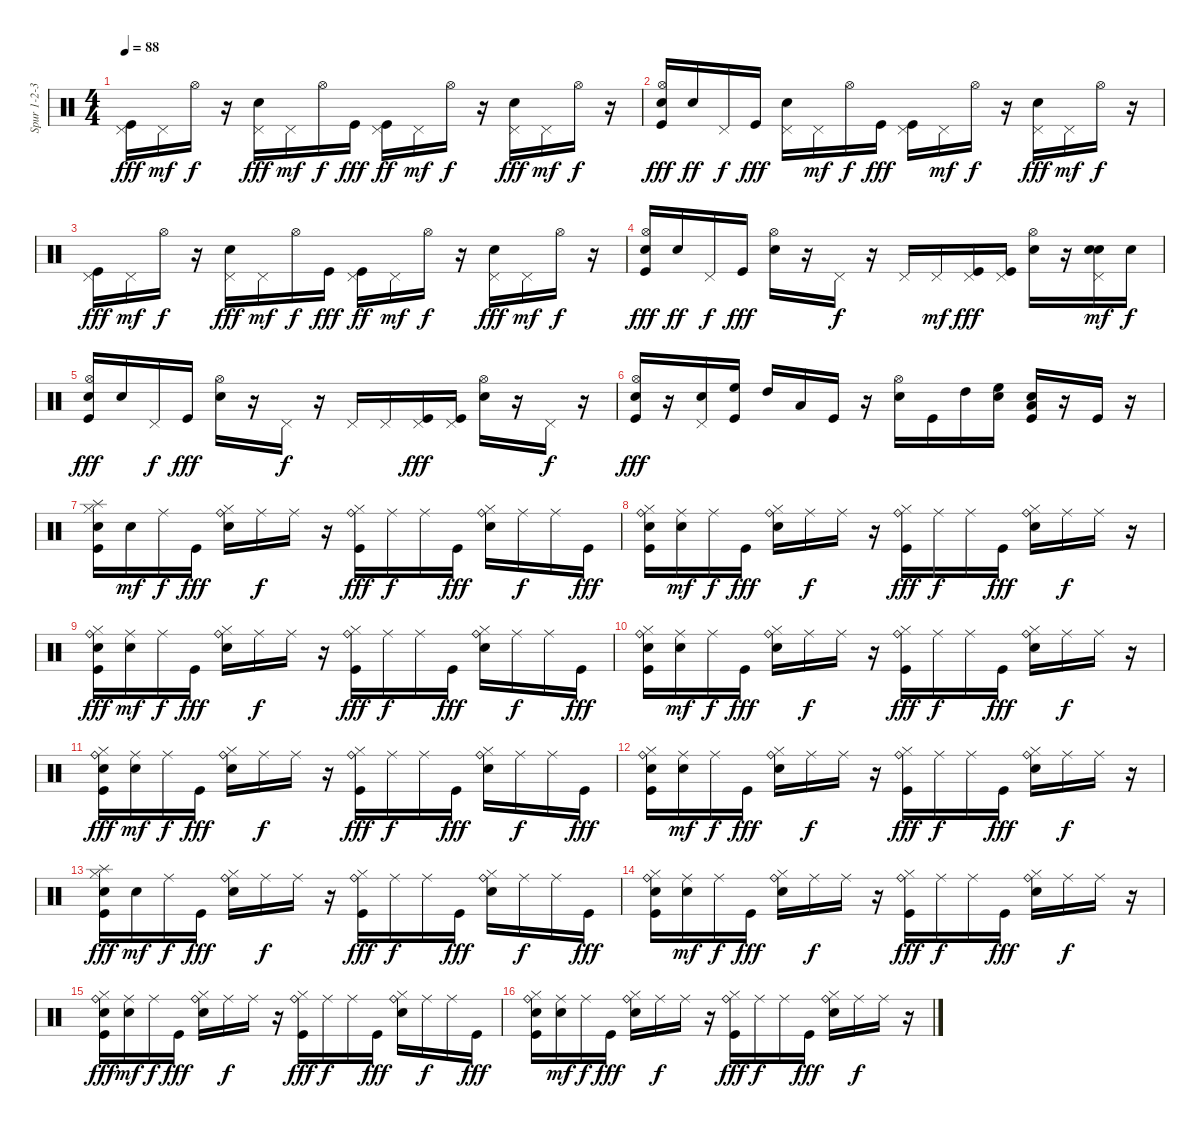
\track ("Spur 1-2-3-4" "Spur 1-2-3") {instrument percussion}
\staff {score}
\articulation defaults
\ts (4 4)
\tempo 88
\clef neutral
\ks c
("Pedal Hi-Hat (hit)" "Kick (hit)").16{dy fff} "Pedal Hi-Hat (hit)".16{dy mf} "Hi-Hat (open)".16{dy f} r.16 ("Pedal Hi-Hat (hit)" "Snare (hit) 2").16{dy fff} "Pedal Hi-Hat (hit)".16{dy mf} "Hi-Hat (open)".16{dy f} "Kick (hit)".16{dy fff} ("Pedal Hi-Hat (hit)" "Kick (hit)").16{dy ff} "Pedal Hi-Hat (hit)".16{dy mf} "Hi-Hat (open)".16{dy f} r.16 ("Pedal Hi-Hat (hit)" "Snare (hit) 2").16{dy fff} "Pedal Hi-Hat (hit)".16{dy mf} "Hi-Hat (open)".16{dy f} r.16 |
("Hi-Hat (open)" "Snare (hit) 2" "Kick (hit)").16{dy fff} "Snare (hit) 2".16{dy ff} "Pedal Hi-Hat (hit)".16{dy f} "Kick (hit)".16{dy fff} ("Pedal Hi-Hat (hit)" "Snare (hit) 2").16 "Pedal Hi-Hat (hit)".16{dy mf} "Hi-Hat (open)".16{dy f} "Kick (hit)".16{dy fff} ("Pedal Hi-Hat (hit)" "Kick (hit)").16 "Pedal Hi-Hat (hit)".16{dy mf} "Hi-Hat (open)".16{dy f} r.16 ("Pedal Hi-Hat (hit)" "Snare (hit) 2").16{dy fff} "Pedal Hi-Hat (hit)".16{dy mf} "Hi-Hat (open)".16{dy f} r.16 |
("Pedal Hi-Hat (hit)" "Kick (hit)").16{dy fff} "Pedal Hi-Hat (hit)".16{dy mf} "Hi-Hat (open)".16{dy f} r.16 ("Pedal Hi-Hat (hit)" "Snare (hit) 2").16{dy fff} "Pedal Hi-Hat (hit)".16{dy mf} "Hi-Hat (open)".16{dy f} "Kick (hit)".16{dy fff} ("Pedal Hi-Hat (hit)" "Kick (hit)").16{dy ff} "Pedal Hi-Hat (hit)".16{dy mf} "Hi-Hat (open)".16{dy f} r.16 ("Pedal Hi-Hat (hit)" "Snare (hit) 2").16{dy fff} "Pedal Hi-Hat (hit)".16{dy mf} "Hi-Hat (open)".16{dy f} r.16 |
("Hi-Hat (open)" "Snare (hit) 2" "Kick (hit)").16{dy fff} "Snare (hit) 2".16{dy ff} "Pedal Hi-Hat (hit)".16{dy f} "Kick (hit)".16{dy fff} ("Hi-Hat (open)" "Snare (hit) 2").16 r.16 "Pedal Hi-Hat (hit)".16{dy f} r.16 "Pedal Hi-Hat (hit)".16 "Pedal Hi-Hat (hit)".16{dy mf} ("Pedal Hi-Hat (hit)" "Kick (hit)").16{dy fff} ("Pedal Hi-Hat (hit)" "Kick (hit)").16 ("Hi-Hat (open)" "Snare (hit) 2").16 r.16 ("Pedal Hi-Hat (hit)" "Snare (hit) 2" "Snare (hit) 2").16{dy mf} "Snare (hit) 2".16{dy f} |
("Hi-Hat (open)" "Snare (hit) 2" "Kick (hit)").16{dy fff} "Snare (hit) 2".16 "Pedal Hi-Hat (hit)".16{dy f} "Kick (hit)".16{dy fff} ("Hi-Hat (open)" "Snare (hit) 2").16 r.16 "Pedal Hi-Hat (hit)".16{dy f} r.16 "Pedal Hi-Hat (hit)".16 "Pedal Hi-Hat (hit)".16 ("Pedal Hi-Hat (hit)" "Kick (hit)").16{dy fff} ("Pedal Hi-Hat (hit)" "Kick (hit)").16 ("Hi-Hat (open)" "Snare (hit) 2").16 r.16 "Pedal Hi-Hat (hit)".16{dy f} r.16 |
("Hi-Hat (open)" "Snare (hit) 2" "Kick (hit)").16{dy fff} r.16 ("Pedal Hi-Hat (hit)" "Snare (hit) 2").16 ("Kick (hit)" "High Floor Tom (hit)").16 "High Tom (hit)".16 "Low Tom (hit)".16 "Kick (hit)".16 r.16 ("Hi-Hat (open)" "Snare (hit) 2").16 "Kick (hit)".16 "High Tom (hit)".16 ("High Floor Tom (hit)" "Snare (hit) 2").16 ("Snare (hit) 2" "Kick (hit)" "Low Tom (hit)").16 r.16 "Kick (hit)".16 r.16 |
("Hi-Hat (closed)" "Snare (hit) 2" "Kick (hit)" "Splash (hit)").16 "Snare (hit) 2".16{dy mf} "Ride (middle)".16{dy f} "Kick (hit)".16{dy fff} ("Hi-Hat (closed)" "Snare (hit) 2" "Ride (bell)").16 "Ride (middle)".16{dy f} "Ride (middle)".16 r.16 ("Hi-Hat (closed)" "Kick (hit)" "Ride (bell)").16{dy fff} "Ride (middle)".16{dy f} "Ride (middle)".16 "Kick (hit)".16{dy fff} ("Hi-Hat (closed)" "Snare (hit) 2" "Ride (bell)").16 "Ride (middle)".16{dy f} "Ride (middle)".16 "Kick (hit)".16{dy fff} |
("Hi-Hat (closed)" "Snare (hit) 2" "Kick (hit)" "Ride (bell)").16 ("Snare (hit) 2" "Ride (middle)").16{dy mf} "Ride (middle)".16{dy f} "Kick (hit)".16{dy fff} ("Hi-Hat (closed)" "Snare (hit) 2" "Ride (bell)").16 "Ride (middle)".16{dy f} "Ride (middle)".16 r.16 ("Hi-Hat (closed)" "Kick (hit)" "Ride (bell)").16{dy fff} "Ride (middle)".16{dy f} "Ride (middle)".16 "Kick (hit)".16{dy fff} ("Hi-Hat (closed)" "Snare (hit) 2" "Ride (bell)").16 "Ride (middle)".16{dy f} "Ride (middle)".16 r.16 |
("Hi-Hat (closed)" "Snare (hit) 2" "Kick (hit)" "Ride (bell)").16{dy fff} ("Snare (hit) 2" "Ride (middle)").16{dy mf} "Ride (middle)".16{dy f} "Kick (hit)".16{dy fff} ("Hi-Hat (closed)" "Snare (hit) 2" "Ride (bell)").16 "Ride (middle)".16{dy f} "Ride (middle)".16 r.16 ("Hi-Hat (closed)" "Kick (hit)" "Ride (bell)").16{dy fff} "Ride (middle)".16{dy f} "Ride (middle)".16 "Kick (hit)".16{dy fff} ("Hi-Hat (closed)" "Snare (hit) 2" "Ride (bell)").16 "Ride (middle)".16{dy f} "Ride (middle)".16 "Kick (hit)".16{dy fff} |
("Hi-Hat (closed)" "Snare (hit) 2" "Kick (hit)" "Ride (bell)").16 ("Snare (hit) 2" "Ride (middle)").16{dy mf} "Ride (middle)".16{dy f} "Kick (hit)".16{dy fff} ("Hi-Hat (closed)" "Snare (hit) 2" "Ride (bell)").16 "Ride (middle)".16{dy f} "Ride (middle)".16 r.16 ("Hi-Hat (closed)" "Kick (hit)" "Ride (bell)").16{dy fff} "Ride (middle)".16{dy f} "Ride (middle)".16 "Kick (hit)".16{dy fff} ("Hi-Hat (closed)" "Snare (hit) 2" "Ride (bell)").16 "Ride (middle)".16{dy f} "Ride (middle)".16 r.16 |
("Hi-Hat (closed)" "Snare (hit) 2" "Kick (hit)" "Ride (bell)").16{dy fff} ("Snare (hit) 2" "Ride (middle)").16{dy mf} "Ride (middle)".16{dy f} "Kick (hit)".16{dy fff} ("Hi-Hat (closed)" "Snare (hit) 2" "Ride (bell)").16 "Ride (middle)".16{dy f} "Ride (middle)".16 r.16 ("Hi-Hat (closed)" "Kick (hit)" "Ride (bell)").16{dy fff} "Ride (middle)".16{dy f} "Ride (middle)".16 "Kick (hit)".16{dy fff} ("Hi-Hat (closed)" "Snare (hit) 2" "Ride (bell)").16 "Ride (middle)".16{dy f} "Ride (middle)".16 "Kick (hit)".16{dy fff} |
("Hi-Hat (closed)" "Snare (hit) 2" "Kick (hit)" "Ride (bell)").16 ("Snare (hit) 2" "Ride (middle)").16{dy mf} "Ride (middle)".16{dy f} "Kick (hit)".16{dy fff} ("Hi-Hat (closed)" "Snare (hit) 2" "Ride (bell)").16 "Ride (middle)".16{dy f} "Ride (middle)".16 r.16 ("Hi-Hat (closed)" "Kick (hit)" "Ride (bell)").16{dy fff} "Ride (middle)".16{dy f} "Ride (middle)".16 "Kick (hit)".16{dy fff} ("Hi-Hat (closed)" "Snare (hit) 2" "Ride (bell)").16 "Ride (middle)".16{dy f} "Ride (middle)".16 r.16 |
("Hi-Hat (closed)" "Snare (hit) 2" "Kick (hit)" "Splash (hit)").16{dy fff} "Snare (hit) 2".16{dy mf} "Ride (middle)".16{dy f} "Kick (hit)".16{dy fff} ("Hi-Hat (closed)" "Snare (hit) 2" "Ride (bell)").16 "Ride (middle)".16{dy f} "Ride (middle)".16 r.16 ("Hi-Hat (closed)" "Kick (hit)" "Ride (bell)").16{dy fff} "Ride (middle)".16{dy f} "Ride (middle)".16 "Kick (hit)".16{dy fff} ("Hi-Hat (closed)" "Snare (hit) 2" "Ride (bell)").16 "Ride (middle)".16{dy f} "Ride (middle)".16 "Kick (hit)".16{dy fff} |
("Hi-Hat (closed)" "Snare (hit) 2" "Kick (hit)" "Ride (bell)").16 ("Snare (hit) 2" "Ride (middle)").16{dy mf} "Ride (middle)".16{dy f} "Kick (hit)".16{dy fff} ("Hi-Hat (closed)" "Snare (hit) 2" "Ride (bell)").16 "Ride (middle)".16{dy f} "Ride (middle)".16 r.16 ("Hi-Hat (closed)" "Kick (hit)" "Ride (bell)").16{dy fff} "Ride (middle)".16{dy f} "Ride (middle)".16 "Kick (hit)".16{dy fff} ("Hi-Hat (closed)" "Snare (hit) 2" "Ride (bell)").16 "Ride (middle)".16{dy f} "Ride (middle)".16 r.16 |
("Hi-Hat (closed)" "Snare (hit) 2" "Kick (hit)" "Ride (bell)").16{dy fff} ("Snare (hit) 2" "Ride (middle)").16{dy mf} "Ride (middle)".16{dy f} "Kick (hit)".16{dy fff} ("Hi-Hat (closed)" "Snare (hit) 2" "Ride (bell)").16 "Ride (middle)".16{dy f} "Ride (middle)".16 r.16 ("Hi-Hat (closed)" "Kick (hit)" "Ride (bell)").16{dy fff} "Ride (middle)".16{dy f} "Ride (middle)".16 "Kick (hit)".16{dy fff} ("Hi-Hat (closed)" "Snare (hit) 2" "Ride (bell)").16 "Ride (middle)".16{dy f} "Ride (middle)".16 "Kick (hit)".16{dy fff} |
("Hi-Hat (closed)" "Snare (hit) 2" "Kick (hit)" "Ride (bell)").16 ("Snare (hit) 2" "Ride (middle)").16{dy mf} "Ride (middle)".16{dy f} "Kick (hit)".16{dy fff} ("Hi-Hat (closed)" "Snare (hit) 2" "Ride (bell)").16 "Ride (middle)".16{dy f} "Ride (middle)".16 r.16 ("Hi-Hat (closed)" "Kick (hit)" "Ride (bell)").16{dy fff} "Ride (middle)".16{dy f} "Ride (middle)".16 "Kick (hit)".16{dy fff} ("Hi-Hat (closed)" "Snare (hit) 2" "Ride (bell)").16 "Ride (middle)".16{dy f} "Ride (middle)".16 r.16
